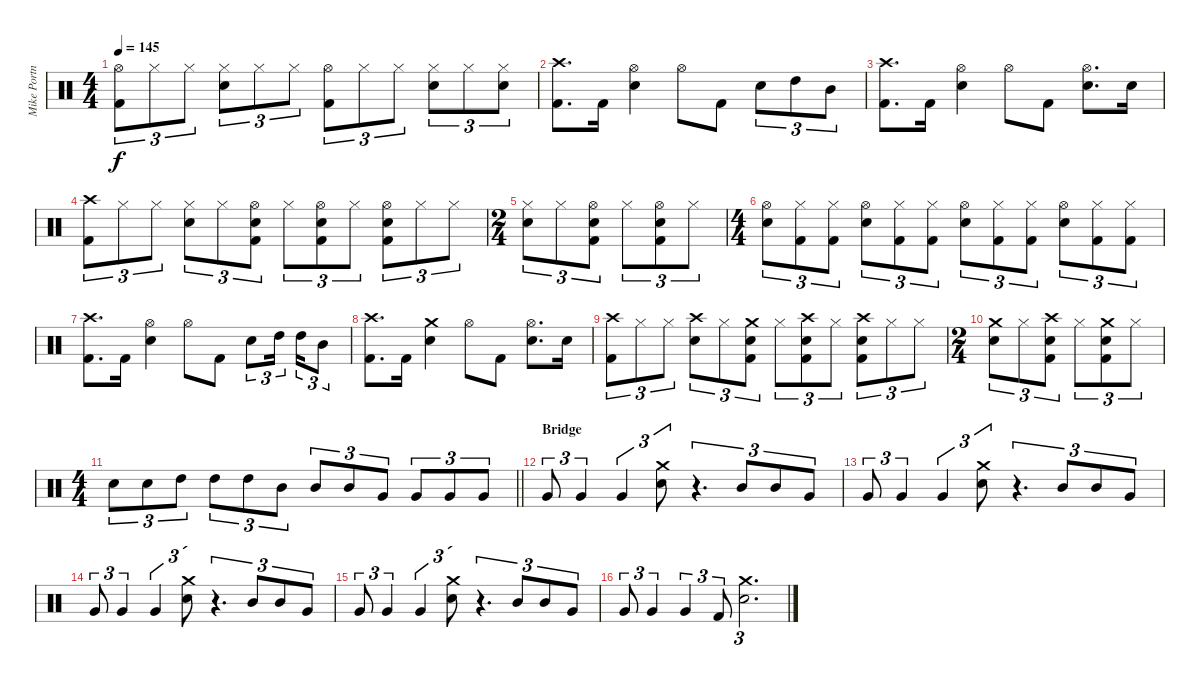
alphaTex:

\track ("Mike Portnoy" "Mike Portn") {instrument percussion}
\staff {score}
\articulation defaults
\ts (4 4)
\tempo 145
\clef neutral
\ks c
("Hi-Hat (open)" "Kick (hit) 2").8{tu (3 2) dy f} "Hi-Hat (closed)".8{tu (3 2)} "Hi-Hat (closed)".8{tu (3 2)} ("Hi-Hat (closed)" "Electric Snare (hit)").8{tu (3 2)} "Hi-Hat (closed)".8{tu (3 2)} "Hi-Hat (closed)".8{tu (3 2)} ("Hi-Hat (open)" "Kick (hit) 2").8{tu (3 2)} "Hi-Hat (closed)".8{tu (3 2)} "Hi-Hat (closed)".8{tu (3 2)} ("Hi-Hat (closed)" "Electric Snare (hit)").8{tu (3 2)} "Hi-Hat (closed)".8{tu (3 2)} ("Hi-Hat (closed)" "Electric Snare (hit)").8{tu (3 2)} |
("Crash high (hit)" "Kick (hit) 2").8{d} "Kick (hit) 2".16 ("Hi-Hat (open)" "Electric Snare (hit)").4 "Hi-Hat (open)".8 "Kick (hit) 2".8 "Electric Snare (hit)".8{tu (3 2)} "High Tom (hit)".8{tu (3 2)} "Mid Tom (hit)".8{tu (3 2)} |
("Crash high (hit)" "Kick (hit) 2").8{d} "Kick (hit) 2".16 ("Hi-Hat (open)" "Electric Snare (hit)").4 "Hi-Hat (open)".8 "Kick (hit) 2".8 ("Hi-Hat (open)" "Electric Snare (hit)").8{d} "Electric Snare (hit)".16 |
("Crash high (hit)" "Kick (hit) 2").8{tu (3 2)} "Hi-Hat (closed)".8{tu (3 2)} "Hi-Hat (closed)".8{tu (3 2)} ("Hi-Hat (closed)" "Electric Snare (hit)").8{tu (3 2)} "Hi-Hat (closed)".8{tu (3 2)} ("Hi-Hat (open)" "Electric Snare (hit)" "Kick (hit) 2").8{tu (3 2)} "Hi-Hat (closed)".8{tu (3 2)} ("Hi-Hat (open)" "Electric Snare (hit)" "Kick (hit) 2").8{tu (3 2)} "Hi-Hat (closed)".8{tu (3 2)} ("Hi-Hat (open)" "Electric Snare (hit)" "Kick (hit) 2").8{tu (3 2)} "Hi-Hat (closed)".8{tu (3 2)} "Hi-Hat (closed)".8{tu (3 2)} |
\ts (2 4)
("Hi-Hat (closed)" "Electric Snare (hit)").8{tu (3 2)} "Hi-Hat (closed)".8{tu (3 2)} ("Hi-Hat (open)" "Electric Snare (hit)" "Kick (hit) 2").8{tu (3 2)} "Hi-Hat (closed)".8{tu (3 2)} ("Hi-Hat (open)" "Electric Snare (hit)" "Kick (hit) 2").8{tu (3 2)} "Hi-Hat (closed)".8{tu (3 2)} |
\ts (4 4)
("Hi-Hat (open)" "Electric Snare (hit)").8{tu (3 2)} ("Hi-Hat (closed)" "Kick (hit) 2").8{tu (3 2)} ("Hi-Hat (closed)" "Kick (hit) 2").8{tu (3 2)} ("Hi-Hat (open)" "Electric Snare (hit)").8{tu (3 2)} ("Hi-Hat (closed)" "Kick (hit) 2").8{tu (3 2)} ("Hi-Hat (closed)" "Kick (hit) 2").8{tu (3 2)} ("Hi-Hat (open)" "Electric Snare (hit)").8{tu (3 2)} ("Hi-Hat (closed)" "Kick (hit) 2").8{tu (3 2)} ("Hi-Hat (closed)" "Kick (hit) 2").8{tu (3 2)} ("Hi-Hat (open)" "Electric Snare (hit)").8{tu (3 2)} ("Hi-Hat (closed)" "Kick (hit) 2").8{tu (3 2)} ("Hi-Hat (closed)" "Kick (hit) 2").8{tu (3 2)} |
("Crash high (hit)" "Kick (hit) 2").8{d} "Kick (hit) 2".16 ("Hi-Hat (open)" "Electric Snare (hit)").4 "Hi-Hat (open)".8 "Kick (hit) 2".8 "Electric Snare (hit)".8{tu (3 2)} "High Tom (hit)".16{tu (3 2) beam splitsecondary} "High Tom (hit)".16{tu (3 2)} "Mid Tom (hit)".8{tu (3 2)} |
("Crash high (hit)" "Kick (hit) 2").8{d} "Kick (hit) 2".16 ("Crash medium (hit)" "Electric Snare (hit)").4 "Hi-Hat (open)".8 "Kick (hit) 2".8 ("Hi-Hat (open)" "Electric Snare (hit)").8{d} "Electric Snare (hit)".16 |
("Crash high (hit)" "Kick (hit) 2").8{tu (3 2)} "Hi-Hat (closed)".8{tu (3 2)} "Hi-Hat (closed)".8{tu (3 2)} ("Crash high (hit)" "Electric Snare (hit)").8{tu (3 2)} "Hi-Hat (closed)".8{tu (3 2)} ("Crash medium (hit)" "Electric Snare (hit)" "Kick (hit) 2").8{tu (3 2)} "Hi-Hat (closed)".8{tu (3 2)} ("Crash high (hit)" "Electric Snare (hit)" "Kick (hit) 2").8{tu (3 2)} "Hi-Hat (closed)".8{tu (3 2)} ("Crash high (hit)" "Electric Snare (hit)" "Kick (hit) 2").8{tu (3 2)} "Hi-Hat (closed)".8{tu (3 2)} "Hi-Hat (closed)".8{tu (3 2)} |
\ts (2 4)
("Crash medium (hit)" "Electric Snare (hit)").8{tu (3 2)} "Hi-Hat (closed)".8{tu (3 2)} ("Crash high (hit)" "Electric Snare (hit)" "Kick (hit) 2").8{tu (3 2)} "Hi-Hat (closed)".8{tu (3 2)} ("Crash medium (hit)" "Electric Snare (hit)" "Kick (hit) 2").8{tu (3 2)} "Hi-Hat (closed)".8{tu (3 2)} |
\ts (4 4)
\barLineRight lightlight "Electric Snare (hit)".8{tu (3 2)} "Electric Snare (hit)".8{tu (3 2)} "High Tom (hit)".8{tu (3 2)} "High Tom (hit)".8{tu (3 2)} "High Tom (hit)".8{tu (3 2)} "Mid Tom (hit)".8{tu (3 2)} "Mid Tom (hit)".8{tu (3 2)} "Mid Tom (hit)".8{tu (3 2)} "Very Low Tom (hit)".8{tu (3 2)} "Very Low Tom (hit)".8{tu (3 2)} "Very Low Tom (hit)".8{tu (3 2)} "Very Low Tom (hit)".8{tu (3 2)}
|
\section ("" "Bridge")
"Very Low Tom (hit)".8{tu (3 2)} "Very Low Tom (hit)".4{tu (3 2)} "Very Low Tom (hit)".4{tu (3 2)} ("Crash medium (hit)" "Electric Snare (hit)").8{tu (3 2)} r.4{d tu (3 2)} "Mid Tom (hit)".8{tu (3 2)} "Mid Tom (hit)".8{tu (3 2)} "Very Low Tom (hit)".8{tu (3 2)} |
"Very Low Tom (hit)".8{tu (3 2)} "Very Low Tom (hit)".4{tu (3 2)} "Very Low Tom (hit)".4{tu (3 2)} ("Crash medium (hit)" "Electric Snare (hit)").8{tu (3 2)} r.4{d tu (3 2)} "Mid Tom (hit)".8{tu (3 2)} "Mid Tom (hit)".8{tu (3 2)} "Very Low Tom (hit)".8{tu (3 2)} |
"Very Low Tom (hit)".8{tu (3 2)} "Very Low Tom (hit)".4{tu (3 2)} "Very Low Tom (hit)".4{tu (3 2)} ("Crash medium (hit)" "Electric Snare (hit)").8{tu (3 2)} r.4{d tu (3 2)} "Mid Tom (hit)".8{tu (3 2)} "Mid Tom (hit)".8{tu (3 2)} "Very Low Tom (hit)".8{tu (3 2)} |
"Very Low Tom (hit)".8{tu (3 2)} "Very Low Tom (hit)".4{tu (3 2)} "Very Low Tom (hit)".4{tu (3 2)} ("Crash medium (hit)" "Electric Snare (hit)").8{tu (3 2)} r.4{d tu (3 2)} "Mid Tom (hit)".8{tu (3 2)} "Mid Tom (hit)".8{tu (3 2)} "Very Low Tom (hit)".8{tu (3 2)} |
"Very Low Tom (hit)".8{tu (3 2)} "Very Low Tom (hit)".4{tu (3 2)} "Very Low Tom (hit)".4{tu (3 2)} "Kick (hit) 2".8{tu (3 2)} ("Crash medium (hit)" "Electric Snare (hit)").2{d tu (3 2)}
